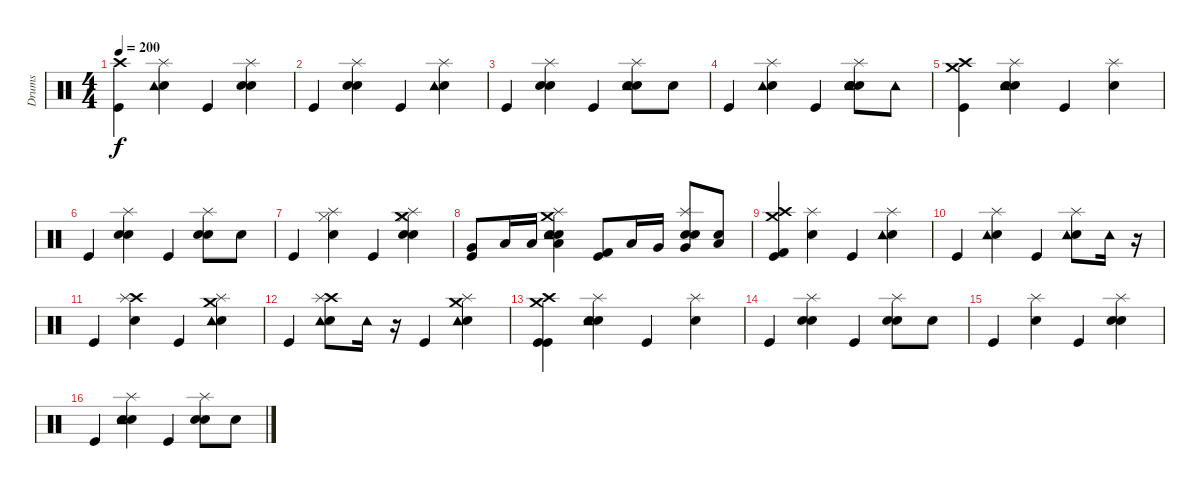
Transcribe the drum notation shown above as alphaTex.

\track ("Drums" "Drums") {instrument percussion}
\staff {score}
\articulation defaults
\ts (4 4)
\tempo 200
\clef neutral
\ks c
("Kick (hit)" "Crash high (hit)").4{dy f} ("Snare (hit) 2" "Tambourine (hit)" "Splash (hit)").4 "Kick (hit)".4 ("Snare (hit) 2" "Electric Snare (hit)" "Splash (hit)").4 |
"Kick (hit)".4 ("Snare (hit) 2" "Electric Snare (hit)" "Splash (hit)").4 "Kick (hit)".4 ("Snare (hit) 2" "Tambourine (hit)" "Splash (hit)").4 |
"Kick (hit)".4 ("Snare (hit) 2" "Electric Snare (hit)" "Splash (hit)").4 "Kick (hit)".4 ("Snare (hit) 2" "Electric Snare (hit)" "Tambourine (hit)" "Splash (hit)").8 "Electric Snare (hit)".8 |
"Kick (hit)".4 ("Snare (hit) 2" "Tambourine (hit)" "Splash (hit)").4 "Kick (hit)".4 ("Snare (hit) 2" "Electric Snare (hit)" "Electric Snare (hit)" "Tambourine (hit)" "Splash (hit)").8 "Tambourine (hit)".8 |
("Kick (hit)" "Crash high (hit)" "Crash medium (hit)").4 ("Snare (hit) 2" "Electric Snare (hit)" "Tambourine (hit)" "Splash (hit)").4 "Kick (hit)".4 ("Snare (hit) 2" "Splash (hit)").4 |
"Kick (hit)".4 ("Snare (hit) 2" "Electric Snare (hit)" "Splash (hit)").4 "Kick (hit)".4 ("Snare (hit) 2" "Electric Snare (hit)" "Splash (hit)").8 "Electric Snare (hit)".8 |
"Kick (hit)".4 ("Snare (hit) 2" "Hi-Hat (closed)" "Splash (hit)").4 "Kick (hit)".4 ("Snare (hit) 2" "Electric Snare (hit)" "Hi-Hat (closed)" "Splash (hit)" "Crash medium (hit)").4 |
("Kick (hit)" "Very Low Tom (hit)").8 "Low Floor Tom (hit)".16 "Low Floor Tom (hit)".16 ("Snare (hit) 2" "Electric Snare (hit)" "Low Floor Tom (hit)" "Tambourine (hit)" "Splash (hit)" "Crash medium (hit)").4 ("Kick (hit)" "Kick (hit) 2").8 "Low Tom (hit)".16 "Very Low Tom (hit)".16 ("Snare (hit) 2" "Electric Snare (hit)" "Very Low Tom (hit)" "Splash (hit)").8 ("Electric Snare (hit)" "Low Floor Tom (hit)").8 |
("Kick (hit)" "Kick (hit) 2" "Crash high (hit)" "Crash medium (hit)").4 ("Snare (hit) 2" "Splash (hit)").4 "Kick (hit)".4 ("Snare (hit) 2" "Tambourine (hit)" "Splash (hit)").4 |
"Kick (hit)".4 ("Snare (hit) 2" "Tambourine (hit)" "Splash (hit)").4 "Kick (hit)".4 ("Snare (hit) 2" "Tambourine (hit)" "Splash (hit)").8 "Tambourine (hit)".16 r.16 |
"Kick (hit)".4 ("Snare (hit) 2" "Crash high (hit)" "Splash (hit)").4 "Kick (hit)".4 ("Snare (hit) 2" "Tambourine (hit)" "Splash (hit)" "Crash medium (hit)").4 |
"Kick (hit)".4 ("Snare (hit) 2" "Crash high (hit)" "Tambourine (hit)" "Splash (hit)").8 "Tambourine (hit)".16 r.16 "Kick (hit)".4 ("Snare (hit) 2" "Tambourine (hit)" "Splash (hit)" "Crash medium (hit)").4 |
("Kick (hit)" "Kick (hit)" "Crash high (hit)" "Crash medium (hit)").4 ("Snare (hit) 2" "Electric Snare (hit)" "Tambourine (hit)" "Splash (hit)").4 "Kick (hit)".4 ("Snare (hit) 2" "Splash (hit)").4 |
"Kick (hit)".4 ("Snare (hit) 2" "Electric Snare (hit)" "Splash (hit)").4 "Kick (hit)".4 ("Snare (hit) 2" "Electric Snare (hit)" "Splash (hit)").8 "Electric Snare (hit)".8 |
"Kick (hit)".4 ("Snare (hit) 2" "Splash (hit)").4 "Kick (hit)".4 ("Snare (hit) 2" "Electric Snare (hit)" "Splash (hit)").4 |
"Kick (hit)".4 ("Snare (hit) 2" "Electric Snare (hit)" "Tambourine (hit)" "Splash (hit)").4 "Kick (hit)".4 ("Snare (hit) 2" "Electric Snare (hit)" "Splash (hit)").8 "Electric Snare (hit)".8
